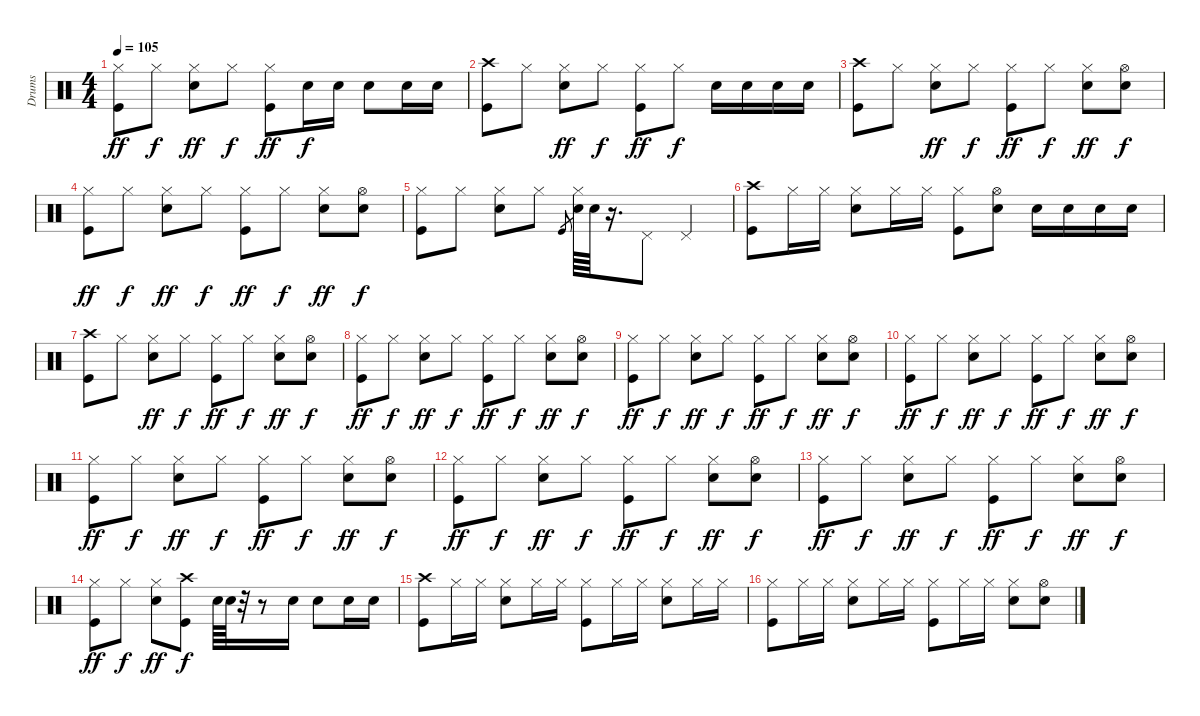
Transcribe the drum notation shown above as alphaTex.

\track ("Drums" "Drums") {instrument percussion}
\staff {score}
\articulation defaults
\ts (4 4)
\tempo 105
\clef neutral
\ks c
("Hi-Hat (closed)" "Kick (hit)").8{dy ff} "Hi-Hat (closed)".8{dy f} ("Hi-Hat (closed)" "Snare (hit) 2").8{dy ff} "Hi-Hat (closed)".8{dy f} ("Hi-Hat (closed)" "Kick (hit)").8{dy ff} "Snare (hit) 2".16{dy f} "Snare (hit) 2".16 "Snare (hit) 2".8 "Snare (hit) 2".16 "Snare (hit) 2".16 |
("Crash high (hit)" "Kick (hit)").8 "Hi-Hat (closed)".8 ("Hi-Hat (closed)" "Snare (hit) 2").8{dy ff} "Hi-Hat (closed)".8{dy f} ("Hi-Hat (closed)" "Kick (hit)").8{dy ff} "Hi-Hat (closed)".8{dy f} "Snare (hit) 2".16 "Snare (hit) 2".16 "Snare (hit) 2".16 "Snare (hit) 2".16 |
("Crash high (hit)" "Kick (hit)").8 "Hi-Hat (closed)".8 ("Hi-Hat (closed)" "Snare (hit) 2").8{dy ff} "Hi-Hat (closed)".8{dy f} ("Hi-Hat (closed)" "Kick (hit)").8{dy ff} "Hi-Hat (closed)".8{dy f} ("Hi-Hat (closed)" "Snare (hit) 2").8{dy ff} ("Hi-Hat (open)" "Snare (hit) 2").8{dy f} |
("Hi-Hat (closed)" "Kick (hit)").8{dy ff} "Hi-Hat (closed)".8{dy f} ("Hi-Hat (closed)" "Snare (hit) 2").8{dy ff} "Hi-Hat (closed)".8{dy f} ("Hi-Hat (closed)" "Kick (hit)").8{dy ff} "Hi-Hat (closed)".8{dy f} ("Hi-Hat (closed)" "Snare (hit) 2").8{dy ff} ("Hi-Hat (open)" "Snare (hit) 2").8{dy f} |
("Hi-Hat (closed)" "Kick (hit)").8 "Hi-Hat (closed)".8 ("Hi-Hat (closed)" "Snare (hit) 2").8 "Hi-Hat (closed)".8 "Kick (hit)".8{gr} ("Hi-Hat (closed)" "Snare (hit) 2").64 "Snare (hit) 2".64 r.16{d} "Pedal Hi-Hat (hit)".8 "Pedal Hi-Hat (hit)".4 |
("Crash high (hit)" "Kick (hit)").8 "Hi-Hat (closed)".16 "Hi-Hat (closed)".16 ("Hi-Hat (closed)" "Snare (hit) 2").8 "Hi-Hat (closed)".16 "Hi-Hat (closed)".16 ("Hi-Hat (closed)" "Kick (hit)").8 ("Hi-Hat (open)" "Snare (hit) 2").8 "Snare (hit) 2".16 "Snare (hit) 2".16 "Snare (hit) 2".16 "Snare (hit) 2".16 |
("Crash high (hit)" "Kick (hit)").8 "Hi-Hat (closed)".8 ("Hi-Hat (closed)" "Snare (hit) 2").8{dy ff} "Hi-Hat (closed)".8{dy f} ("Hi-Hat (closed)" "Kick (hit)").8{dy ff} "Hi-Hat (closed)".8{dy f} ("Hi-Hat (closed)" "Snare (hit) 2").8{dy ff} ("Hi-Hat (open)" "Snare (hit) 2").8{dy f} |
("Hi-Hat (closed)" "Kick (hit)").8{dy ff} "Hi-Hat (closed)".8{dy f} ("Hi-Hat (closed)" "Snare (hit) 2").8{dy ff} "Hi-Hat (closed)".8{dy f} ("Hi-Hat (closed)" "Kick (hit)").8{dy ff} "Hi-Hat (closed)".8{dy f} ("Hi-Hat (closed)" "Snare (hit) 2").8{dy ff} ("Hi-Hat (open)" "Snare (hit) 2").8{dy f} |
("Hi-Hat (closed)" "Kick (hit)").8{dy ff} "Hi-Hat (closed)".8{dy f} ("Hi-Hat (closed)" "Snare (hit) 2").8{dy ff} "Hi-Hat (closed)".8{dy f} ("Hi-Hat (closed)" "Kick (hit)").8{dy ff} "Hi-Hat (closed)".8{dy f} ("Hi-Hat (closed)" "Snare (hit) 2").8{dy ff} ("Hi-Hat (open)" "Snare (hit) 2").8{dy f} |
("Hi-Hat (closed)" "Kick (hit)").8{dy ff} "Hi-Hat (closed)".8{dy f} ("Hi-Hat (closed)" "Snare (hit) 2").8{dy ff} "Hi-Hat (closed)".8{dy f} ("Hi-Hat (closed)" "Kick (hit)").8{dy ff} "Hi-Hat (closed)".8{dy f} ("Hi-Hat (closed)" "Snare (hit) 2").8{dy ff} ("Hi-Hat (open)" "Snare (hit) 2").8{dy f} |
("Hi-Hat (closed)" "Kick (hit)").8{dy ff} "Hi-Hat (closed)".8{dy f} ("Hi-Hat (closed)" "Snare (hit) 2").8{dy ff} "Hi-Hat (closed)".8{dy f} ("Hi-Hat (closed)" "Kick (hit)").8{dy ff} "Hi-Hat (closed)".8{dy f} ("Hi-Hat (closed)" "Snare (hit) 2").8{dy ff} ("Hi-Hat (open)" "Snare (hit) 2").8{dy f} |
("Hi-Hat (closed)" "Kick (hit)").8{dy ff} "Hi-Hat (closed)".8{dy f} ("Hi-Hat (closed)" "Snare (hit) 2").8{dy ff} "Hi-Hat (closed)".8{dy f} ("Hi-Hat (closed)" "Kick (hit)").8{dy ff} "Hi-Hat (closed)".8{dy f} ("Hi-Hat (closed)" "Snare (hit) 2").8{dy ff} ("Hi-Hat (open)" "Snare (hit) 2").8{dy f} |
("Hi-Hat (closed)" "Kick (hit)").8{dy ff} "Hi-Hat (closed)".8{dy f} ("Hi-Hat (closed)" "Snare (hit) 2").8{dy ff} "Hi-Hat (closed)".8{dy f} ("Hi-Hat (closed)" "Kick (hit)").8{dy ff} "Hi-Hat (closed)".8{dy f} ("Hi-Hat (closed)" "Snare (hit) 2").8{dy ff} ("Hi-Hat (open)" "Snare (hit) 2").8{dy f} |
("Hi-Hat (closed)" "Kick (hit)").8{dy ff} "Hi-Hat (closed)".8{dy f} ("Hi-Hat (closed)" "Snare (hit) 2").8{dy ff} ("Crash high (hit)" "Kick (hit)").8{dy f} "Snare (hit) 2".64 "Snare (hit) 2".64 r.32 r.8 "Snare (hit) 2".16 "Snare (hit) 2".8 "Snare (hit) 2".16 "Snare (hit) 2".16 |
("Crash high (hit)" "Kick (hit)").8 "Hi-Hat (closed)".16 "Hi-Hat (closed)".16 ("Hi-Hat (closed)" "Snare (hit) 2").8 "Hi-Hat (closed)".16 "Hi-Hat (closed)".16 ("Hi-Hat (closed)" "Kick (hit)").8 "Hi-Hat (closed)".16 "Hi-Hat (closed)".16 ("Hi-Hat (closed)" "Snare (hit) 2").8 "Hi-Hat (closed)".16 "Hi-Hat (closed)".16 |
("Hi-Hat (closed)" "Kick (hit)").8 "Hi-Hat (closed)".16 "Hi-Hat (closed)".16 ("Hi-Hat (closed)" "Snare (hit) 2").8 "Hi-Hat (closed)".16 "Hi-Hat (closed)".16 ("Hi-Hat (closed)" "Kick (hit)").8 "Hi-Hat (closed)".16 "Hi-Hat (closed)".16 ("Hi-Hat (closed)" "Snare (hit) 2").8 ("Hi-Hat (open)" "Snare (hit) 2").8
